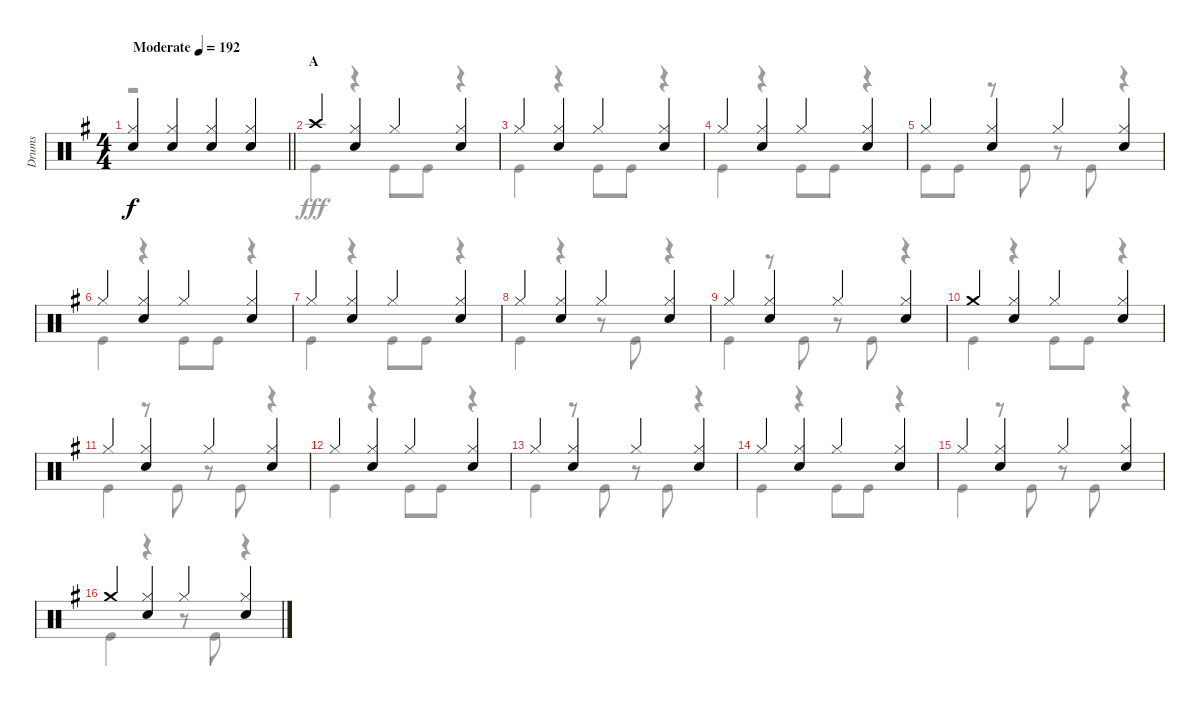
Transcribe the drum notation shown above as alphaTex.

\track ("Drums" "Drums") {instrument percussion}
\staff {score}
\articulation defaults
\voice
\ts (4 4)
\tempo (192 "Moderate")
\clef neutral
\barLineRight lightlight
\ks g
("Hi-Hat (closed)" "Snare (hit) 2").4{dy f} ("Hi-Hat (closed)" "Snare (hit) 2").4 ("Hi-Hat (closed)" "Snare (hit) 2").4 ("Hi-Hat (closed)" "Snare (hit) 2").4 |
\section ("" "A")
"Crash high (hit)".4 ("Hi-Hat (closed)" "Snare (hit) 2").4 "Hi-Hat (closed)".4 ("Hi-Hat (closed)" "Snare (hit) 2").4 |
"Hi-Hat (closed)".4 ("Hi-Hat (closed)" "Snare (hit) 2").4 "Hi-Hat (closed)".4 ("Hi-Hat (closed)" "Snare (hit) 2").4 |
"Hi-Hat (closed)".4 ("Hi-Hat (closed)" "Snare (hit) 2").4 "Hi-Hat (closed)".4 ("Hi-Hat (closed)" "Snare (hit) 2").4 |
"Hi-Hat (closed)".4 ("Hi-Hat (closed)" "Snare (hit) 2").4 "Hi-Hat (closed)".4 ("Hi-Hat (closed)" "Snare (hit) 2").4 |
"Hi-Hat (closed)".4 ("Hi-Hat (closed)" "Snare (hit) 2").4 "Hi-Hat (closed)".4 ("Hi-Hat (closed)" "Snare (hit) 2").4 |
"Hi-Hat (closed)".4 ("Hi-Hat (closed)" "Snare (hit) 2").4 "Hi-Hat (closed)".4 ("Hi-Hat (closed)" "Snare (hit) 2").4 |
"Hi-Hat (closed)".4 ("Hi-Hat (closed)" "Snare (hit) 2").4 "Hi-Hat (closed)".4 ("Hi-Hat (closed)" "Snare (hit) 2").4 |
"Hi-Hat (closed)".4 ("Hi-Hat (closed)" "Snare (hit) 2").4 "Hi-Hat (closed)".4 ("Hi-Hat (closed)" "Snare (hit) 2").4 |
"Crash medium (hit)".4 ("Hi-Hat (closed)" "Snare (hit) 2").4 "Hi-Hat (closed)".4 ("Hi-Hat (closed)" "Snare (hit) 2").4 |
"Hi-Hat (closed)".4 ("Hi-Hat (closed)" "Snare (hit) 2").4 "Hi-Hat (closed)".4 ("Hi-Hat (closed)" "Snare (hit) 2").4 |
"Hi-Hat (closed)".4 ("Hi-Hat (closed)" "Snare (hit) 2").4 "Hi-Hat (closed)".4 ("Hi-Hat (closed)" "Snare (hit) 2").4 |
"Hi-Hat (closed)".4 ("Hi-Hat (closed)" "Snare (hit) 2").4 "Hi-Hat (closed)".4 ("Hi-Hat (closed)" "Snare (hit) 2").4 |
"Hi-Hat (closed)".4 ("Hi-Hat (closed)" "Snare (hit) 2").4 "Hi-Hat (closed)".4 ("Hi-Hat (closed)" "Snare (hit) 2").4 |
"Hi-Hat (closed)".4 ("Hi-Hat (closed)" "Snare (hit) 2").4 "Hi-Hat (closed)".4 ("Hi-Hat (closed)" "Snare (hit) 2").4 |
"Crash medium (hit)".4 ("Hi-Hat (closed)" "Snare (hit) 2").4 "Hi-Hat (closed)".4 ("Hi-Hat (closed)" "Snare (hit) 2").4
\voice
\clef neutral
\ottava regular
\simile none
\barLineRight lightlight
\ks g
r.1{dy fff} |
"Kick (hit)".4 r.4 "Kick (hit)".8 "Kick (hit)".8 r.4 |
"Kick (hit)".4 r.4 "Kick (hit)".8 "Kick (hit)".8 r.4 |
"Kick (hit)".4 r.4 "Kick (hit)".8 "Kick (hit)".8 r.4 |
"Kick (hit)".8 "Kick (hit)".8 r.8 "Kick (hit)".8 r.8 "Kick (hit)".8 r.4 |
"Kick (hit)".4 r.4 "Kick (hit)".8 "Kick (hit)".8 r.4 |
"Kick (hit)".4 r.4 "Kick (hit)".8 "Kick (hit)".8 r.4 |
"Kick (hit)".4 r.4 r.8 "Kick (hit)".8 r.4 |
"Kick (hit)".4 r.8 "Kick (hit)".8 r.8 "Kick (hit)".8 r.4 |
"Kick (hit)".4 r.4 "Kick (hit)".8 "Kick (hit)".8 r.4 |
"Kick (hit)".4 r.8 "Kick (hit)".8 r.8 "Kick (hit)".8 r.4 |
"Kick (hit)".4 r.4 "Kick (hit)".8 "Kick (hit)".8 r.4 |
"Kick (hit)".4 r.8 "Kick (hit)".8 r.8 "Kick (hit)".8 r.4 |
"Kick (hit)".4 r.4 "Kick (hit)".8 "Kick (hit)".8 r.4 |
"Kick (hit)".4 r.8 "Kick (hit)".8 r.8 "Kick (hit)".8 r.4 |
"Kick (hit)".4 r.4 r.8 "Kick (hit)".8 r.4
